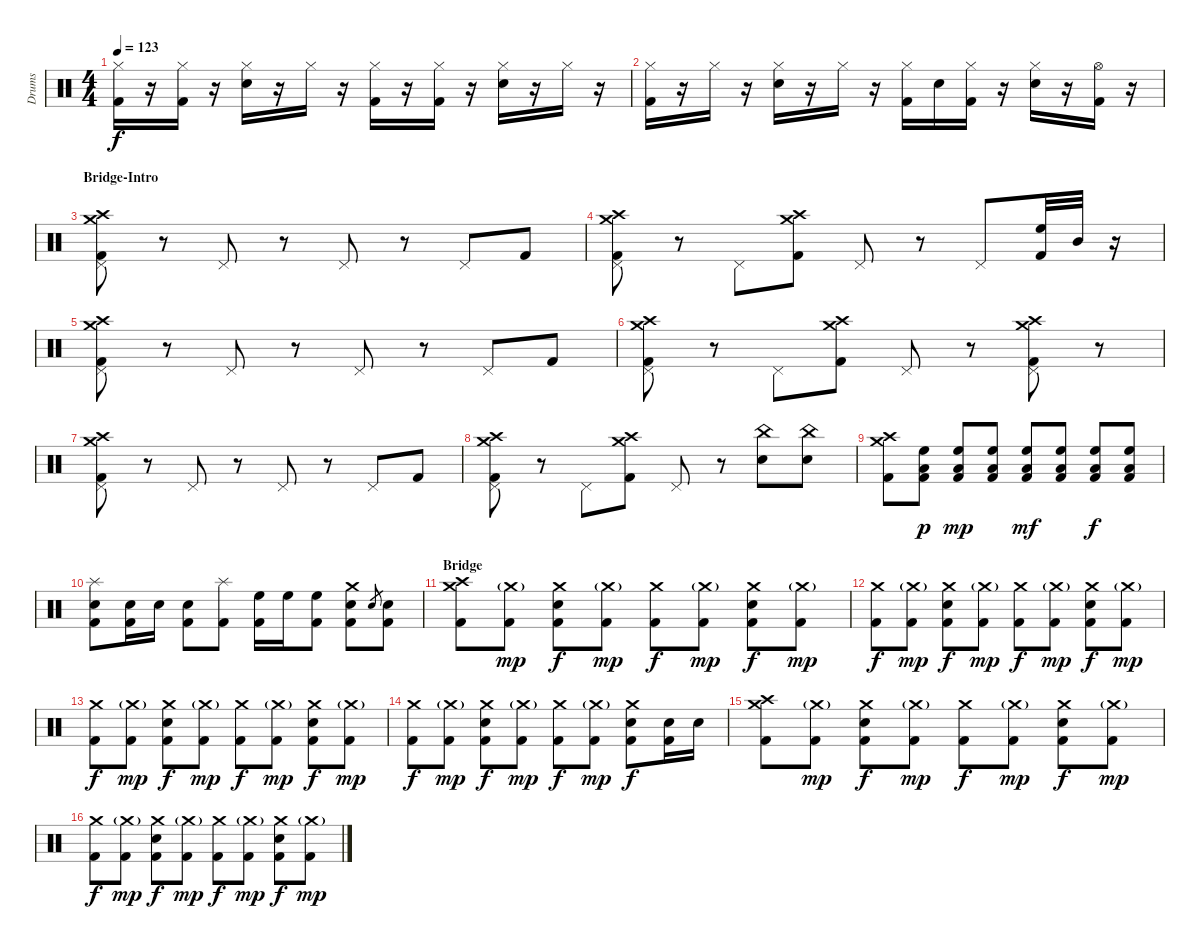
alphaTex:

\track ("Drums" "Drums") {instrument percussion}
\staff {score}
\articulation defaults
\ts (4 4)
\tempo 123
\clef neutral
\ks c
("Hi-Hat (closed)" "Kick (hit) 2").16{dy f} r.16 ("Hi-Hat (closed)" "Kick (hit) 2").16 r.16 ("Hi-Hat (closed)" "Electric Snare (hit)").16 r.16 "Hi-Hat (closed)".16 r.16 ("Hi-Hat (closed)" "Kick (hit) 2").16 r.16 ("Hi-Hat (closed)" "Kick (hit) 2").16 r.16 ("Hi-Hat (closed)" "Electric Snare (hit)").16 r.16 "Hi-Hat (closed)".16 r.16 |
("Hi-Hat (closed)" "Kick (hit) 2").16 r.16 "Hi-Hat (closed)".16 r.16 ("Hi-Hat (closed)" "Electric Snare (hit)").16 r.16 "Hi-Hat (closed)".16 r.16 ("Hi-Hat (closed)" "Kick (hit) 2").16 "Electric Snare (hit)".16 ("Hi-Hat (closed)" "Kick (hit) 2").16 r.16 ("Hi-Hat (closed)" "Electric Snare (hit)").16 r.16 ("Hi-Hat (open)" "Kick (hit) 2").16 r.16 |
\section ("" "Bridge-Intro")
("Pedal Hi-Hat (hit)" "Crash medium (hit)" "Crash high (hit)" "Kick (hit) 2").8 r.8 "Pedal Hi-Hat (hit)".8 r.8 "Pedal Hi-Hat (hit)".8 r.8 "Pedal Hi-Hat (hit)".8 "Kick (hit) 2".8 |
("Pedal Hi-Hat (hit)" "Crash medium (hit)" "Crash high (hit)" "Kick (hit) 2").8 r.8 "Pedal Hi-Hat (hit)".8 ("Crash medium (hit)" "Crash high (hit)" "Kick (hit) 2").8 "Pedal Hi-Hat (hit)".8 r.8 "Pedal Hi-Hat (hit)".8 ("High Floor Tom (hit)" "Kick (hit) 2").32 "Mid Tom (hit)".32 r.16 |
("Pedal Hi-Hat (hit)" "Crash medium (hit)" "Crash high (hit)" "Kick (hit) 2").8 r.8 "Pedal Hi-Hat (hit)".8 r.8 "Pedal Hi-Hat (hit)".8 r.8 "Pedal Hi-Hat (hit)".8 "Kick (hit) 2".8 |
("Pedal Hi-Hat (hit)" "Crash medium (hit)" "Crash high (hit)" "Kick (hit) 2").8 r.8 "Pedal Hi-Hat (hit)".8 ("Crash medium (hit)" "Crash high (hit)" "Kick (hit) 2").8 "Pedal Hi-Hat (hit)".8 r.8 ("Pedal Hi-Hat (hit)" "Crash medium (hit)" "Crash high (hit)" "Kick (hit) 2").8 r.8 |
("Pedal Hi-Hat (hit)" "Crash medium (hit)" "Crash high (hit)" "Kick (hit) 2").8 r.8 "Pedal Hi-Hat (hit)".8 r.8 "Pedal Hi-Hat (hit)".8 r.8 "Pedal Hi-Hat (hit)".8 "Kick (hit) 2".8 |
("Pedal Hi-Hat (hit)" "Crash medium (hit)" "Crash high (hit)" "Kick (hit) 2").8 r.8 "Pedal Hi-Hat (hit)".8 ("Crash medium (hit)" "Crash high (hit)" "Kick (hit) 2").8 "Pedal Hi-Hat (hit)".8 r.8 ("China (hit)" "Electric Snare (hit)").8 ("China (hit)" "Electric Snare (hit)").8 |
("Crash high (hit)" "Crash medium (hit)" "Kick (hit) 2").8 ("High Floor Tom (hit)" "Low Tom (hit)" "Kick (hit) 2").8{dy p} ("High Floor Tom (hit)" "Low Tom (hit)" "Kick (hit) 2").8{dy mp} ("High Floor Tom (hit)" "Low Tom (hit)" "Kick (hit) 2").8 ("High Floor Tom (hit)" "Low Tom (hit)" "Kick (hit) 2").8{dy mf} ("High Floor Tom (hit)" "Low Tom (hit)" "Kick (hit) 2").8 ("High Floor Tom (hit)" "Low Tom (hit)" "Kick (hit) 2").8{dy f} ("High Floor Tom (hit)" "Low Tom (hit)" "Kick (hit) 2").8 |
("Splash (hit)" "Electric Snare (hit)" "Kick (hit) 2").8 ("Electric Snare (hit)" "Kick (hit) 2").16 "Electric Snare (hit)".16 ("Electric Snare (hit)" "Kick (hit) 2").8 ("Splash (hit)" "Kick (hit) 2").8 ("High Floor Tom (hit)" "Kick (hit) 2").16 "High Floor Tom (hit)".16 ("High Floor Tom (hit)" "Kick (hit) 2").8 ("Crash medium (hit)" "Electric Snare (hit)" "Kick (hit) 2").8 "Electric Snare (hit)".8{gr} ("Electric Snare (hit)" "Kick (hit) 2").8 |
\section ("" "Bridge")
("Crash medium (hit)" "Crash high (hit)" "Kick (hit) 2").8 ("Crash medium (hit)"{g} "Kick (hit) 2").8{dy mp} ("Crash medium (hit)" "Electric Snare (hit)" "Kick (hit) 2").8{dy f} ("Crash medium (hit)"{g} "Kick (hit) 2").8{dy mp} ("Crash medium (hit)" "Kick (hit) 2").8{dy f} ("Crash medium (hit)"{g} "Kick (hit) 2").8{dy mp} ("Crash medium (hit)" "Electric Snare (hit)" "Kick (hit) 2").8{dy f} ("Crash medium (hit)"{g} "Kick (hit) 2").8{dy mp} |
("Crash medium (hit)" "Kick (hit) 2").8{dy f} ("Crash medium (hit)"{g} "Kick (hit) 2").8{dy mp} ("Crash medium (hit)" "Electric Snare (hit)" "Kick (hit) 2").8{dy f} ("Crash medium (hit)"{g} "Kick (hit) 2").8{dy mp} ("Crash medium (hit)" "Kick (hit) 2").8{dy f} ("Crash medium (hit)"{g} "Kick (hit) 2").8{dy mp} ("Crash medium (hit)" "Electric Snare (hit)" "Kick (hit) 2").8{dy f} ("Crash medium (hit)"{g} "Kick (hit) 2").8{dy mp} |
("Crash medium (hit)" "Kick (hit) 2").8{dy f} ("Crash medium (hit)"{g} "Kick (hit) 2").8{dy mp} ("Crash medium (hit)" "Electric Snare (hit)" "Kick (hit) 2").8{dy f} ("Crash medium (hit)"{g} "Kick (hit) 2").8{dy mp} ("Crash medium (hit)" "Kick (hit) 2").8{dy f} ("Crash medium (hit)"{g} "Kick (hit) 2").8{dy mp} ("Crash medium (hit)" "Electric Snare (hit)" "Kick (hit) 2").8{dy f} ("Crash medium (hit)"{g} "Kick (hit) 2").8{dy mp} |
("Crash medium (hit)" "Kick (hit) 2").8{dy f} ("Crash medium (hit)"{g} "Kick (hit) 2").8{dy mp} ("Crash medium (hit)" "Electric Snare (hit)" "Kick (hit) 2").8{dy f} ("Crash medium (hit)"{g} "Kick (hit) 2").8{dy mp} ("Crash medium (hit)" "Kick (hit) 2").8{dy f} ("Crash medium (hit)"{g} "Kick (hit) 2").8{dy mp} ("Crash medium (hit)" "Electric Snare (hit)" "Kick (hit) 2").8{dy f} ("Electric Snare (hit)" "Kick (hit) 2").16 "Electric Snare (hit)".16 |
("Crash medium (hit)" "Crash high (hit)" "Kick (hit) 2").8 ("Crash medium (hit)"{g} "Kick (hit) 2").8{dy mp} ("Crash medium (hit)" "Electric Snare (hit)" "Kick (hit) 2").8{dy f} ("Crash medium (hit)"{g} "Kick (hit) 2").8{dy mp} ("Crash medium (hit)" "Kick (hit) 2").8{dy f} ("Crash medium (hit)"{g} "Kick (hit) 2").8{dy mp} ("Crash medium (hit)" "Electric Snare (hit)" "Kick (hit) 2").8{dy f} ("Crash medium (hit)"{g} "Kick (hit) 2").8{dy mp} |
("Crash medium (hit)" "Kick (hit) 2").8{dy f} ("Crash medium (hit)"{g} "Kick (hit) 2").8{dy mp} ("Crash medium (hit)" "Electric Snare (hit)" "Kick (hit) 2").8{dy f} ("Crash medium (hit)"{g} "Kick (hit) 2").8{dy mp} ("Crash medium (hit)" "Kick (hit) 2").8{dy f} ("Crash medium (hit)"{g} "Kick (hit) 2").8{dy mp} ("Crash medium (hit)" "Electric Snare (hit)" "Kick (hit) 2").8{dy f} ("Crash medium (hit)"{g} "Kick (hit) 2").8{dy mp}
